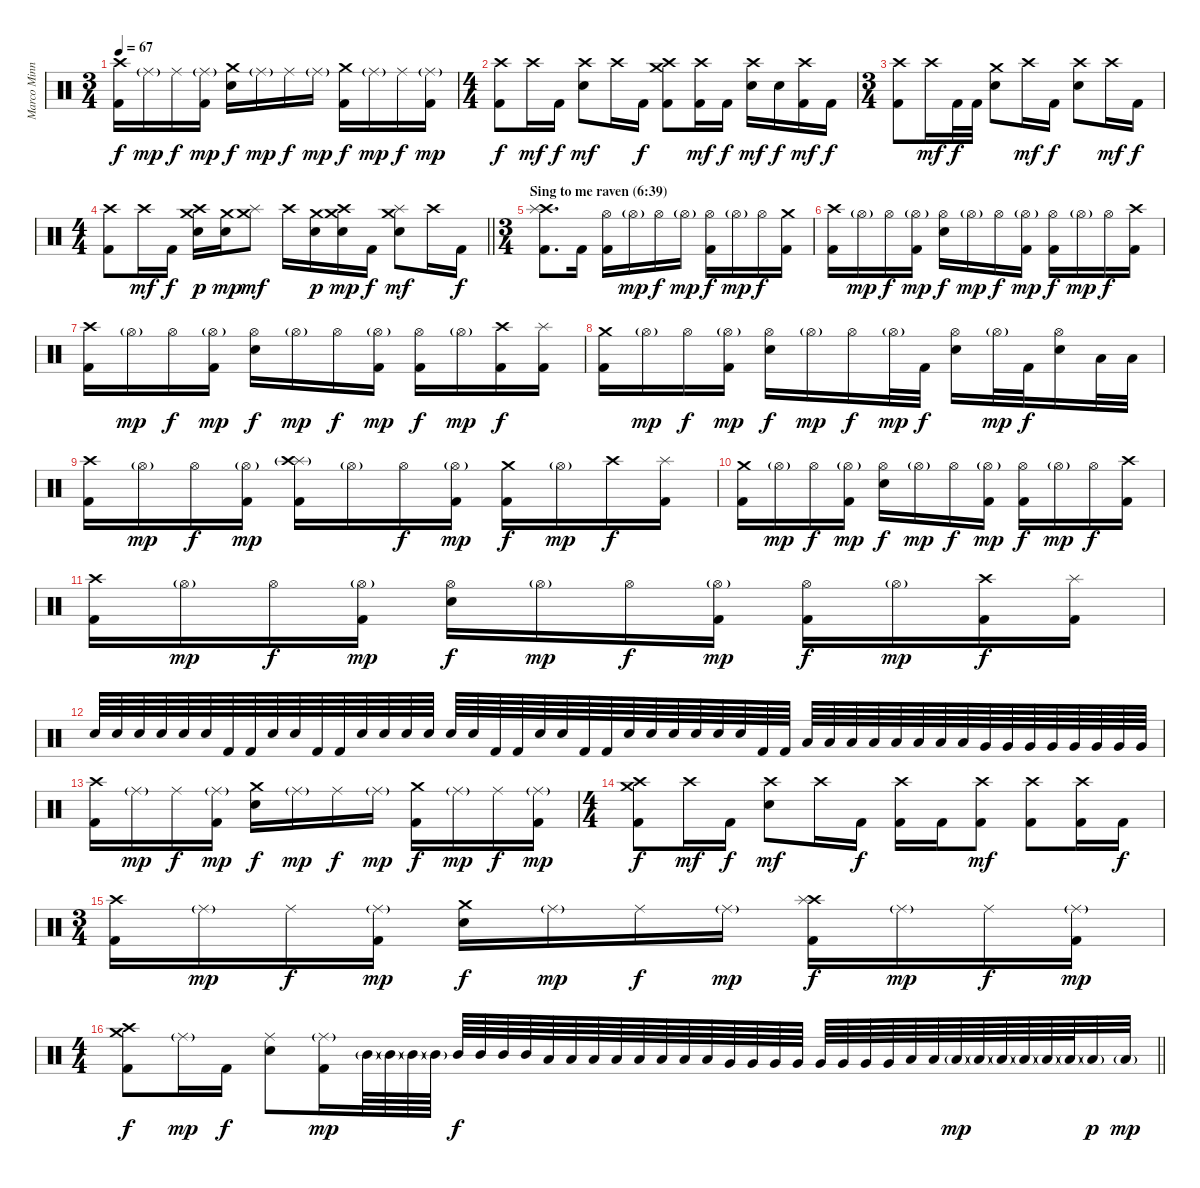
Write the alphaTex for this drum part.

\track ("Marco Minnemann" "Marco Minn") {instrument percussion}
\staff {score}
\articulation defaults
\ts (3 4)
\tempo 67
\clef neutral
\ks c
("Crash high (hit)" "Kick (hit) 2").16{dy f} "Ride (middle)"{g}.16{dy mp} "Ride (middle)".16{dy f} ("Ride (middle)"{g} "Kick (hit) 2").16{dy mp} ("Crash medium (hit)" "Electric Snare (hit)").16{dy f} "Ride (middle)"{g}.16{dy mp} "Ride (middle)".16{dy f} "Ride (middle)"{g}.16{dy mp} ("Crash medium (hit)" "Kick (hit) 2").16{dy f} "Ride (middle)"{g}.16{dy mp} "Ride (middle)".16{dy f} ("Ride (middle)"{g} "Kick (hit) 2").16{dy mp} |
\ts (4 4)
("Crash high (hit)" "Kick (hit) 2").8{dy f} "Crash high (hit)".16{dy mf} "Kick (hit) 2".16{dy f} ("Crash high (hit)" "Electric Snare (hit)").8{dy mf} "Crash high (hit)".16 "Kick (hit) 2".16{dy f} ("Crash high (hit)" "Crash medium (hit)" "Kick (hit) 2").8 ("Crash high (hit)" "Kick (hit) 2").16{dy mf} "Kick (hit) 2".16{dy f} ("Crash high (hit)" "Electric Snare (hit)").16{dy mf} "Electric Snare (hit)".16{dy f} ("Crash high (hit)" "Kick (hit) 2").16{dy mf} "Kick (hit) 2".16{dy f} |
\ts (3 4)
("Crash high (hit)" "Kick (hit) 2").8 "Crash high (hit)".16{dy mf} "Kick (hit) 2".32{dy f} "Kick (hit) 2".32 ("Crash medium (hit)" "Electric Snare (hit)").8 "Crash high (hit)".16{dy mf} "Kick (hit) 2".16{dy f} ("Crash high (hit)" "Electric Snare (hit)").8 "Crash high (hit)".16{dy mf} "Kick (hit) 2".16{dy f} |
\ts (4 4)
\barLineRight lightlight
("Crash high (hit)" "Kick (hit) 2").8 "Crash high (hit)".16{dy mf} "Kick (hit) 2".16{dy f} ("Crash high (hit)" "Crash medium (hit)" "Electric Snare (hit)").16{dy p} ("Crash medium (hit)" "Electric Snare (hit)").16{dy mp} ("Splash (hit)" "Crash medium (hit)").8{dy mf} "Crash high (hit)".16 ("Crash medium (hit)" "Electric Snare (hit)").16{dy p} ("Crash high (hit)" "Crash medium (hit)" "Electric Snare (hit)").16{dy mp} "Kick (hit) 2".16{dy f} ("Splash (hit)" "Crash medium (hit)" "Electric Snare (hit)").8{dy mf} "Crash high (hit)".16 "Kick (hit) 2".16{dy f} |
\ts (3 4)
\section ("" "Sing to me raven (6:39)")
("Crash high (hit)" "Splash (hit)" "Kick (hit) 2").8{d} "Kick (hit) 2".16 ("Hi-Hat (open)" "Kick (hit) 2").16 "Hi-Hat (open)"{g}.16{dy mp} "Hi-Hat (open)".16{dy f} "Hi-Hat (open)"{g}.16{dy mp} ("Hi-Hat (open)" "Kick (hit) 2").16{dy f} "Hi-Hat (open)"{g}.16{dy mp} "Hi-Hat (open)".16{dy f} ("Crash medium (hit)" "Kick (hit) 2").16 |
("Crash high (hit)" "Kick (hit) 2").16 "Hi-Hat (open)"{g}.16{dy mp} "Hi-Hat (open)".16{dy f} ("Hi-Hat (open)"{g} "Kick (hit) 2").16{dy mp} ("Hi-Hat (open)" "Electric Snare (hit)").16{dy f} "Hi-Hat (open)"{g}.16{dy mp} "Hi-Hat (open)".16{dy f} ("Hi-Hat (open)"{g} "Kick (hit) 2").16{dy mp} ("Hi-Hat (open)" "Kick (hit) 2").16{dy f} "Hi-Hat (open)"{g}.16{dy mp} "Hi-Hat (open)".16{dy f} ("Crash high (hit)" "Kick (hit) 2").16 |
("Crash high (hit)" "Kick (hit) 2").16 "Hi-Hat (open)"{g}.16{dy mp} "Hi-Hat (open)".16{dy f} ("Hi-Hat (open)"{g} "Kick (hit) 2").16{dy mp} ("Hi-Hat (open)" "Electric Snare (hit)").16{dy f} "Hi-Hat (open)"{g}.16{dy mp} "Hi-Hat (open)".16{dy f} ("Hi-Hat (open)"{g} "Kick (hit) 2").16{dy mp} ("Hi-Hat (open)" "Kick (hit) 2").16{dy f} "Hi-Hat (open)"{g}.16{dy mp} ("Crash high (hit)" "Kick (hit) 2").16{dy f} ("Splash (hit)" "Kick (hit) 2").16 |
("Crash medium (hit)" "Kick (hit) 2").16 "Hi-Hat (open)"{g}.16{dy mp} "Hi-Hat (open)".16{dy f} ("Hi-Hat (open)"{g} "Kick (hit) 2").16{dy mp} ("Hi-Hat (open)" "Electric Snare (hit)").16{dy f} "Hi-Hat (open)"{g}.16{dy mp} "Hi-Hat (open)".16{dy f} "Hi-Hat (open)"{g}.32{dy mp} "Kick (hit) 2".32{dy f} ("Hi-Hat (open)" "Electric Snare (hit)").16 "Hi-Hat (open)"{g}.32{dy mp} "Kick (hit) 2".32{dy f} ("Hi-Hat (open)" "Electric Snare (hit)").16 "Low Tom (hit)".32 "Low Tom (hit)".32 |
("Crash high (hit)" "Kick (hit) 2").16 "Hi-Hat (open)"{g}.16{dy mp} "Hi-Hat (open)".16{dy f} ("Hi-Hat (open)"{g} "Kick (hit) 2").16{dy mp} ("Splash (hit)" "Crash high (hit)"{g} "Kick (hit) 2").16 "Hi-Hat (open)"{g}.16 "Hi-Hat (open)".16{dy f} ("Hi-Hat (open)"{g} "Kick (hit) 2").16{dy mp} ("Crash medium (hit)" "Kick (hit) 2").16{dy f} "Hi-Hat (open)"{g}.16{dy mp} "Crash high (hit)".16{dy f} ("Splash (hit)" "Kick (hit) 2").16 |
("Crash medium (hit)" "Kick (hit) 2").16 "Hi-Hat (open)"{g}.16{dy mp} "Hi-Hat (open)".16{dy f} ("Hi-Hat (open)"{g} "Kick (hit) 2").16{dy mp} ("Hi-Hat (open)" "Electric Snare (hit)").16{dy f} "Hi-Hat (open)"{g}.16{dy mp} "Hi-Hat (open)".16{dy f} ("Hi-Hat (open)"{g} "Kick (hit) 2").16{dy mp} ("Hi-Hat (open)" "Kick (hit) 2").16{dy f} "Hi-Hat (open)"{g}.16{dy mp} "Hi-Hat (open)".16{dy f} ("Crash high (hit)" "Kick (hit) 2").16 |
("Crash high (hit)" "Kick (hit) 2").16 "Hi-Hat (open)"{g}.16{dy mp} "Hi-Hat (open)".16{dy f} ("Hi-Hat (open)"{g} "Kick (hit) 2").16{dy mp} ("Hi-Hat (open)" "Electric Snare (hit)").16{dy f} "Hi-Hat (open)"{g}.16{dy mp} "Hi-Hat (open)".16{dy f} ("Hi-Hat (open)"{g} "Kick (hit) 2").16{dy mp} ("Hi-Hat (open)" "Kick (hit) 2").16{dy f} "Hi-Hat (open)"{g}.16{dy mp} ("Crash high (hit)" "Kick (hit) 2").16{dy f} ("Splash (hit)" "Kick (hit) 2").16 |
"Electric Snare (hit)".64 "Electric Snare (hit)".64 "Electric Snare (hit)".64 "Electric Snare (hit)".64 "Electric Snare (hit)".64 "Electric Snare (hit)".64 "Kick (hit) 2".64 "Kick (hit) 2".64 "Electric Snare (hit)".64 "Electric Snare (hit)".64 "Kick (hit) 2".64 "Kick (hit) 2".64 "Electric Snare (hit)".64 "Electric Snare (hit)".64 "Electric Snare (hit)".64 "Electric Snare (hit)".64 "Electric Snare (hit)".64 "Electric Snare (hit)".64 "Kick (hit) 2".64 "Kick (hit) 2".64 "Electric Snare (hit)".64 "Electric Snare (hit)".64 "Kick (hit) 2".64 "Kick (hit) 2".64 "Electric Snare (hit)".64 "Electric Snare (hit)".64 "Electric Snare (hit)".64 "Electric Snare (hit)".64 "Electric Snare (hit)".64 "Electric Snare (hit)".64 "Kick (hit) 2".64 "Kick (hit) 2".64 "Low Tom (hit)".64 "Low Tom (hit)".64 "Low Tom (hit)".64 "Low Tom (hit)".64 "Low Tom (hit)".64 "Low Tom (hit)".64 "Low Tom (hit)".64 "Low Tom (hit)".64 "Very Low Tom (hit)".64 "Very Low Tom (hit)".64 "Very Low Tom (hit)".64 "Very Low Tom (hit)".64 "Very Low Tom (hit)".64 "Very Low Tom (hit)".64 "Very Low Tom (hit)".64 "Very Low Tom (hit)".64 |
("Crash high (hit)" "Kick (hit) 2").16 "Ride (middle)"{g}.16{dy mp} "Ride (middle)".16{dy f} ("Ride (middle)"{g} "Kick (hit) 2").16{dy mp} ("Crash medium (hit)" "Electric Snare (hit)").16{dy f} "Ride (middle)"{g}.16{dy mp} "Ride (middle)".16{dy f} "Ride (middle)"{g}.16{dy mp} ("Crash medium (hit)" "Kick (hit) 2").16{dy f} "Ride (middle)"{g}.16{dy mp} "Ride (middle)".16{dy f} ("Ride (middle)"{g} "Kick (hit) 2").16{dy mp} |
\ts (4 4)
("Crash high (hit)" "Crash medium (hit)" "Kick (hit) 2").8{dy f} "Crash high (hit)".16{dy mf} "Kick (hit) 2".16{dy f} ("Crash high (hit)" "Electric Snare (hit)").8{dy mf} "Crash high (hit)".16 "Kick (hit) 2".16{dy f} ("Crash high (hit)" "Kick (hit) 2").16 "Kick (hit) 2".16 ("Crash high (hit)" "Kick (hit) 2").8{dy mf} ("Crash high (hit)" "Kick (hit) 2").8 ("Crash high (hit)" "Kick (hit) 2").16 "Kick (hit) 2".16{dy f} |
\ts (3 4)
("Crash high (hit)" "Kick (hit) 2").16 "Ride (middle)"{g}.16{dy mp} "Ride (middle)".16{dy f} ("Ride (middle)"{g} "Kick (hit) 2").16{dy mp} ("Crash medium (hit)" "Electric Snare (hit)").16{dy f} "Ride (middle)"{g}.16{dy mp} "Ride (middle)".16{dy f} "Ride (middle)"{g}.16{dy mp} ("Crash high (hit)" "Splash (hit)" "Kick (hit) 2").16{dy f} "Ride (middle)"{g}.16{dy mp} "Ride (middle)".16{dy f} ("Ride (middle)"{g} "Kick (hit) 2").16{dy mp} |
\ts (4 4)
\barLineRight lightlight
("Crash high (hit)" "Crash medium (hit)" "Kick (hit) 2").8{dy f} "Ride (middle)"{g}.16{dy mp} "Kick (hit) 2".16{dy f} ("Ride (middle)" "Electric Snare (hit)").8 ("Ride (middle)"{g} "Kick (hit) 2").16{dy mp} "Mid Tom (hit)"{g}.64 "Mid Tom (hit)"{g}.64 "Mid Tom (hit)"{g}.64 "Mid Tom (hit)"{g}.64 "Mid Tom (hit)".64{dy f} "Mid Tom (hit)".64 "Mid Tom (hit)".64 "Mid Tom (hit)".64 "Low Tom (hit)".64 "Low Tom (hit)".64 "Low Tom (hit)".64 "Low Tom (hit)".64 "Low Tom (hit)".64 "Low Tom (hit)".64 "Low Tom (hit)".64 "Low Tom (hit)".64 "Very Low Tom (hit)".64 "Very Low Tom (hit)".64 "Very Low Tom (hit)".64 "Very Low Tom (hit)".64 "Very Low Tom (hit)".64 "Very Low Tom (hit)".64 "Very Low Tom (hit)".64 "Very Low Tom (hit)".64 "Low Floor Tom (hit)".64 "Low Floor Tom (hit)".64 "Low Floor Tom (hit)"{g}.64{dy mp} "Low Floor Tom (hit)"{g}.64 "Low Floor Tom (hit)"{g}.64 "Low Floor Tom (hit)"{g}.64 "Low Floor Tom (hit)"{g}.64 "Low Floor Tom (hit)"{g}.64 "Low Floor Tom (hit)"{g}.32{dy p} "Low Floor Tom (hit)"{g}.32{dy mp}
